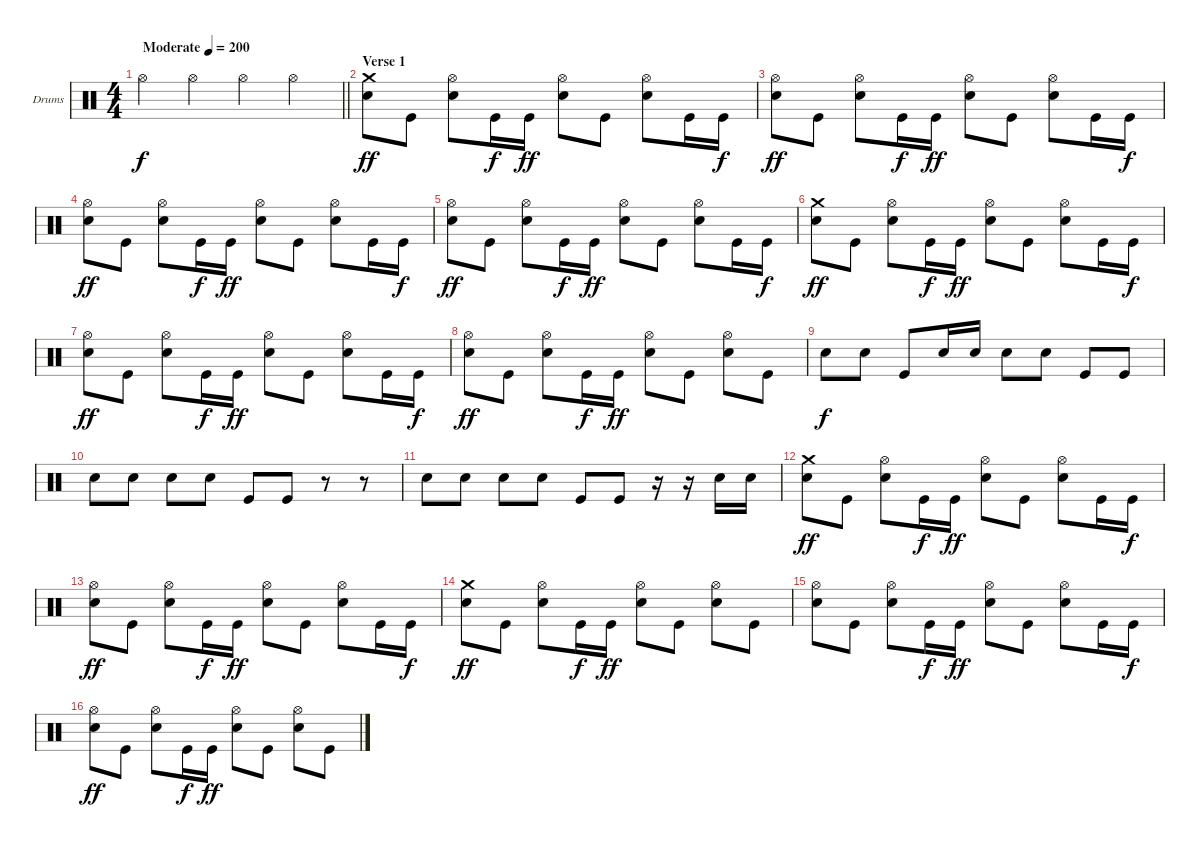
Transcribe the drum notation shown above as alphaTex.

\bracketExtendMode groupsimilarinstruments
\firstSystemTrackNameOrientation horizontal
\otherSystemsTrackNameOrientation horizontal
\track ("Drumkit" "Drums") {instrument percussion}
\staff {score}
\articulation defaults
\ts (4 4)
\beaming (8 2 2 2 2)
\tempo (200 "Moderate")
\clef neutral
\barLineRight lightlight
\ks c "Hi-Hat (open)".4{dy f} "Hi-Hat (open)".4 "Hi-Hat (open)".4 "Hi-Hat (open)".4
|
\section ("" "Verse 1")
("Crash medium (hit)" "Snare (hit) 2").8{dy ff} "Kick (hit)".8 ("Hi-Hat (open)" "Snare (hit) 2").8 "Kick (hit)".16{dy f} "Kick (hit)".16{dy ff} ("Hi-Hat (open)" "Snare (hit) 2").8 "Kick (hit)".8 ("Hi-Hat (open)" "Snare (hit) 2").8 "Kick (hit)".16 "Kick (hit)".16{dy f} |
("Hi-Hat (open)" "Snare (hit) 2").8{dy ff} "Kick (hit)".8 ("Hi-Hat (open)" "Snare (hit) 2").8 "Kick (hit)".16{dy f} "Kick (hit)".16{dy ff} ("Hi-Hat (open)" "Snare (hit) 2").8 "Kick (hit)".8 ("Hi-Hat (open)" "Snare (hit) 2").8 "Kick (hit)".16 "Kick (hit)".16{dy f} |
("Hi-Hat (open)" "Snare (hit) 2").8{dy ff} "Kick (hit)".8 ("Hi-Hat (open)" "Snare (hit) 2").8 "Kick (hit)".16{dy f} "Kick (hit)".16{dy ff} ("Hi-Hat (open)" "Snare (hit) 2").8 "Kick (hit)".8 ("Hi-Hat (open)" "Snare (hit) 2").8 "Kick (hit)".16 "Kick (hit)".16{dy f} |
("Hi-Hat (open)" "Snare (hit) 2").8{dy ff} "Kick (hit)".8 ("Hi-Hat (open)" "Snare (hit) 2").8 "Kick (hit)".16{dy f} "Kick (hit)".16{dy ff} ("Hi-Hat (open)" "Snare (hit) 2").8 "Kick (hit)".8 ("Hi-Hat (open)" "Snare (hit) 2").8 "Kick (hit)".16 "Kick (hit)".16{dy f} |
("Crash medium (hit)" "Snare (hit) 2").8{dy ff} "Kick (hit)".8 ("Hi-Hat (open)" "Snare (hit) 2").8 "Kick (hit)".16{dy f} "Kick (hit)".16{dy ff} ("Hi-Hat (open)" "Snare (hit) 2").8 "Kick (hit)".8 ("Hi-Hat (open)" "Snare (hit) 2").8 "Kick (hit)".16 "Kick (hit)".16{dy f} |
("Hi-Hat (open)" "Snare (hit) 2").8{dy ff} "Kick (hit)".8 ("Hi-Hat (open)" "Snare (hit) 2").8 "Kick (hit)".16{dy f} "Kick (hit)".16{dy ff} ("Hi-Hat (open)" "Snare (hit) 2").8 "Kick (hit)".8 ("Hi-Hat (open)" "Snare (hit) 2").8 "Kick (hit)".16 "Kick (hit)".16{dy f} |
("Hi-Hat (open)" "Snare (hit) 2").8{dy ff} "Kick (hit)".8 ("Hi-Hat (open)" "Snare (hit) 2").8 "Kick (hit)".16{dy f} "Kick (hit)".16{dy ff} ("Hi-Hat (open)" "Snare (hit) 2").8 "Kick (hit)".8 ("Hi-Hat (open)" "Snare (hit) 2").8 "Kick (hit)".8 |
"Snare (hit) 2".8{dy f} "Snare (hit) 2".8 "Kick (hit)".8 "Snare (hit) 2".16 "Snare (hit) 2".16 "Snare (hit) 2".8 "Snare (hit) 2".8 "Kick (hit)".8 "Kick (hit)".8 |
"Snare (hit) 2".8 "Snare (hit) 2".8 "Snare (hit) 2".8 "Snare (hit) 2".8 "Kick (hit)".8 "Kick (hit)".8 r.8 r.8 |
"Snare (hit) 2".8 "Snare (hit) 2".8 "Snare (hit) 2".8 "Snare (hit) 2".8 "Kick (hit)".8 "Kick (hit)".8 r.16 r.16 "Snare (hit) 2".16 "Snare (hit) 2".16 |
("Crash medium (hit)" "Snare (hit) 2").8{dy ff} "Kick (hit)".8 ("Hi-Hat (open)" "Snare (hit) 2").8 "Kick (hit)".16{dy f} "Kick (hit)".16{dy ff} ("Hi-Hat (open)" "Snare (hit) 2").8 "Kick (hit)".8 ("Hi-Hat (open)" "Snare (hit) 2").8 "Kick (hit)".16 "Kick (hit)".16{dy f} |
("Hi-Hat (open)" "Snare (hit) 2").8{dy ff} "Kick (hit)".8 ("Hi-Hat (open)" "Snare (hit) 2").8 "Kick (hit)".16{dy f} "Kick (hit)".16{dy ff} ("Hi-Hat (open)" "Snare (hit) 2").8 "Kick (hit)".8 ("Hi-Hat (open)" "Snare (hit) 2").8 "Kick (hit)".16 "Kick (hit)".16{dy f} |
("Crash medium (hit)" "Snare (hit) 2").8{dy ff} "Kick (hit)".8 ("Hi-Hat (open)" "Snare (hit) 2").8 "Kick (hit)".16{dy f} "Kick (hit)".16{dy ff} ("Hi-Hat (open)" "Snare (hit) 2").8 "Kick (hit)".8 ("Hi-Hat (open)" "Snare (hit) 2").8 "Kick (hit)".8 |
("Hi-Hat (open)" "Snare (hit) 2").8 "Kick (hit)".8 ("Hi-Hat (open)" "Snare (hit) 2").8 "Kick (hit)".16{dy f} "Kick (hit)".16{dy ff} ("Hi-Hat (open)" "Snare (hit) 2").8 "Kick (hit)".8 ("Hi-Hat (open)" "Snare (hit) 2").8 "Kick (hit)".16 "Kick (hit)".16{dy f} |
("Hi-Hat (open)" "Snare (hit) 2").8{dy ff} "Kick (hit)".8 ("Hi-Hat (open)" "Snare (hit) 2").8 "Kick (hit)".16{dy f} "Kick (hit)".16{dy ff} ("Hi-Hat (open)" "Snare (hit) 2").8 "Kick (hit)".8 ("Hi-Hat (open)" "Snare (hit) 2").8 "Kick (hit)".8
